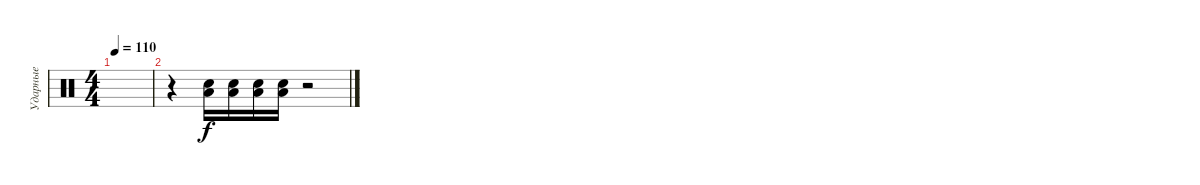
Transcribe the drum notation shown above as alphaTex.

\track ("Ударные" "Ударные") {instrument percussion}
\staff {score}
\articulation defaults
\ts (4 4)
\tempo 110
\clef neutral
\ks c
|
r.4 ("Electric Snare (hit)" "Low Floor Tom (hit)").16 ("Electric Snare (hit)" "Low Floor Tom (hit)").16 ("Electric Snare (hit)" "Low Floor Tom (hit)").16 ("Electric Snare (hit)" "Low Floor Tom (hit)").16 r.2
